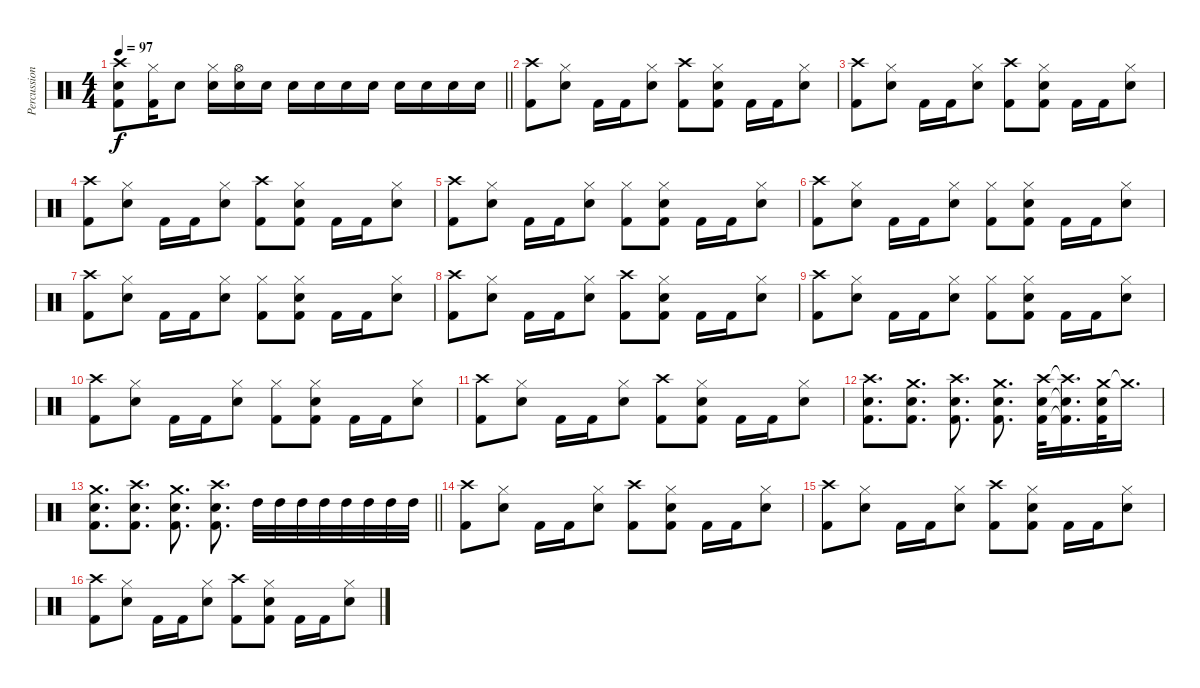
\track ("Percussion" "Percussion") {instrument percussion}
\staff {score}
\articulation defaults
\ts (4 4)
\tempo 97
\clef neutral
\barLineRight lightlight
\ks c
("Crash high (hit)" "Snare (hit) 2" "Kick (hit) 2").8{dy f} ("Hi-Hat (closed)" "Kick (hit) 2").16 "Snare (hit) 2".8 ("Hi-Hat (closed)" "Snare (hit) 2").16 ("Hi-Hat (open)" "Snare (hit) 2").16 "Snare (hit) 2".16 "Snare (hit) 2".16 "Snare (hit) 2".16 "Snare (hit) 2".16 "Snare (hit) 2".16 "Snare (hit) 2".16 "Snare (hit) 2".16 "Snare (hit) 2".16 "Snare (hit) 2".16 |
("Crash high (hit)" "Kick (hit) 2").8 ("Hi-Hat (closed)" "Snare (hit) 2").8 "Kick (hit) 2".16 "Kick (hit) 2".16 ("Hi-Hat (closed)" "Snare (hit) 2").8 ("Crash high (hit)" "Kick (hit) 2").8 ("Hi-Hat (closed)" "Snare (hit) 2" "Kick (hit) 2").8 "Kick (hit) 2".16 "Kick (hit) 2".16 ("Hi-Hat (closed)" "Snare (hit) 2").8 |
("Crash high (hit)" "Kick (hit) 2").8 ("Hi-Hat (closed)" "Snare (hit) 2").8 "Kick (hit) 2".16 "Kick (hit) 2".16 ("Hi-Hat (closed)" "Snare (hit) 2").8 ("Crash high (hit)" "Kick (hit) 2").8 ("Hi-Hat (closed)" "Snare (hit) 2" "Kick (hit) 2").8 "Kick (hit) 2".16 "Kick (hit) 2".16 ("Hi-Hat (closed)" "Snare (hit) 2").8 |
("Crash high (hit)" "Kick (hit) 2").8 ("Hi-Hat (closed)" "Snare (hit) 2").8 "Kick (hit) 2".16 "Kick (hit) 2".16 ("Hi-Hat (closed)" "Snare (hit) 2").8 ("Crash high (hit)" "Kick (hit) 2").8 ("Hi-Hat (closed)" "Snare (hit) 2" "Kick (hit) 2").8 "Kick (hit) 2".16 "Kick (hit) 2".16 ("Hi-Hat (closed)" "Snare (hit) 2").8 |
("Crash high (hit)" "Kick (hit) 2").8 ("Hi-Hat (closed)" "Snare (hit) 2").8 "Kick (hit) 2".16 "Kick (hit) 2".16 ("Hi-Hat (closed)" "Snare (hit) 2").8 ("Hi-Hat (closed)" "Kick (hit) 2").8 ("Hi-Hat (closed)" "Snare (hit) 2" "Kick (hit) 2").8 "Kick (hit) 2".16 "Kick (hit) 2".16 ("Hi-Hat (closed)" "Snare (hit) 2").8 |
("Crash high (hit)" "Kick (hit) 2").8 ("Hi-Hat (closed)" "Snare (hit) 2").8 "Kick (hit) 2".16 "Kick (hit) 2".16 ("Hi-Hat (closed)" "Snare (hit) 2").8 ("Hi-Hat (closed)" "Kick (hit) 2").8 ("Hi-Hat (closed)" "Snare (hit) 2" "Kick (hit) 2").8 "Kick (hit) 2".16 "Kick (hit) 2".16 ("Hi-Hat (closed)" "Snare (hit) 2").8 |
("Crash high (hit)" "Kick (hit) 2").8 ("Hi-Hat (closed)" "Snare (hit) 2").8 "Kick (hit) 2".16 "Kick (hit) 2".16 ("Hi-Hat (closed)" "Snare (hit) 2").8 ("Hi-Hat (closed)" "Kick (hit) 2").8 ("Hi-Hat (closed)" "Snare (hit) 2" "Kick (hit) 2").8 "Kick (hit) 2".16 "Kick (hit) 2".16 ("Hi-Hat (closed)" "Snare (hit) 2").8 |
("Crash high (hit)" "Kick (hit) 2").8 ("Hi-Hat (closed)" "Snare (hit) 2").8 "Kick (hit) 2".16 "Kick (hit) 2".16 ("Hi-Hat (closed)" "Snare (hit) 2").8 ("Crash high (hit)" "Kick (hit) 2").8 ("Hi-Hat (closed)" "Snare (hit) 2" "Kick (hit) 2").8 "Kick (hit) 2".16 "Kick (hit) 2".16 ("Hi-Hat (closed)" "Snare (hit) 2").8 |
("Crash high (hit)" "Kick (hit) 2").8 ("Hi-Hat (closed)" "Snare (hit) 2").8 "Kick (hit) 2".16 "Kick (hit) 2".16 ("Hi-Hat (closed)" "Snare (hit) 2").8 ("Hi-Hat (closed)" "Kick (hit) 2").8 ("Hi-Hat (closed)" "Snare (hit) 2" "Kick (hit) 2").8 "Kick (hit) 2".16 "Kick (hit) 2".16 ("Hi-Hat (closed)" "Snare (hit) 2").8 |
("Crash high (hit)" "Kick (hit) 2").8 ("Hi-Hat (closed)" "Snare (hit) 2").8 "Kick (hit) 2".16 "Kick (hit) 2".16 ("Hi-Hat (closed)" "Snare (hit) 2").8 ("Hi-Hat (closed)" "Kick (hit) 2").8 ("Hi-Hat (closed)" "Snare (hit) 2" "Kick (hit) 2").8 "Kick (hit) 2".16 "Kick (hit) 2".16 ("Hi-Hat (closed)" "Snare (hit) 2").8 |
("Crash high (hit)" "Kick (hit) 2").8 ("Hi-Hat (closed)" "Snare (hit) 2").8 "Kick (hit) 2".16 "Kick (hit) 2".16 ("Hi-Hat (closed)" "Snare (hit) 2").8 ("Crash high (hit)" "Kick (hit) 2").8 ("Hi-Hat (closed)" "Snare (hit) 2" "Kick (hit) 2").8 "Kick (hit) 2".16 "Kick (hit) 2".16 ("Hi-Hat (closed)" "Snare (hit) 2").8 |
("Crash high (hit)" "Snare (hit) 2" "Kick (hit) 2").8{d volume 16} ("Crash medium (hit)" "Snare (hit) 2" "Kick (hit) 2").8{d} ("Crash high (hit)" "Snare (hit) 2" "Kick (hit) 2").8{d} ("Crash medium (hit)" "Snare (hit) 2" "Kick (hit) 2").8{d} ("Crash high (hit)" "Snare (hit) 2" "Kick (hit) 2").32 ("Crash high (hit)"{t} "Snare (hit) 2"{t} "Kick (hit) 2"{t}).16{d} ("Crash medium (hit)" "Snare (hit) 2" "Kick (hit) 2").32 "Crash medium (hit)"{t}.16{d} |
\barLineRight lightlight
("Crash medium (hit)" "Snare (hit) 2" "Kick (hit) 2").8{d} ("Crash high (hit)" "Snare (hit) 2" "Kick (hit) 2").8{d} ("Crash medium (hit)" "Snare (hit) 2" "Kick (hit) 2").8{d} ("Crash high (hit)" "Snare (hit) 2" "Kick (hit) 2").8{d} "High Tom (hit)".32 "High Tom (hit)".32 "High Tom (hit)".32 "High Tom (hit)".32 "High Tom (hit)".32 "High Tom (hit)".32 "High Tom (hit)".32 "High Tom (hit)".32 |
("Crash high (hit)" "Kick (hit) 2").8 ("Hi-Hat (closed)" "Snare (hit) 2").8 "Kick (hit) 2".16 "Kick (hit) 2".16 ("Hi-Hat (closed)" "Snare (hit) 2").8 ("Crash high (hit)" "Kick (hit) 2").8 ("Hi-Hat (closed)" "Snare (hit) 2" "Kick (hit) 2").8 "Kick (hit) 2".16 "Kick (hit) 2".16 ("Hi-Hat (closed)" "Snare (hit) 2").8 |
("Crash high (hit)" "Kick (hit) 2").8 ("Hi-Hat (closed)" "Snare (hit) 2").8 "Kick (hit) 2".16 "Kick (hit) 2".16 ("Hi-Hat (closed)" "Snare (hit) 2").8 ("Crash high (hit)" "Kick (hit) 2").8 ("Hi-Hat (closed)" "Snare (hit) 2" "Kick (hit) 2").8 "Kick (hit) 2".16 "Kick (hit) 2".16 ("Hi-Hat (closed)" "Snare (hit) 2").8 |
("Crash high (hit)" "Kick (hit) 2").8 ("Hi-Hat (closed)" "Snare (hit) 2").8 "Kick (hit) 2".16 "Kick (hit) 2".16 ("Hi-Hat (closed)" "Snare (hit) 2").8 ("Crash high (hit)" "Kick (hit) 2").8 ("Hi-Hat (closed)" "Snare (hit) 2" "Kick (hit) 2").8 "Kick (hit) 2".16 "Kick (hit) 2".16 ("Hi-Hat (closed)" "Snare (hit) 2").8
